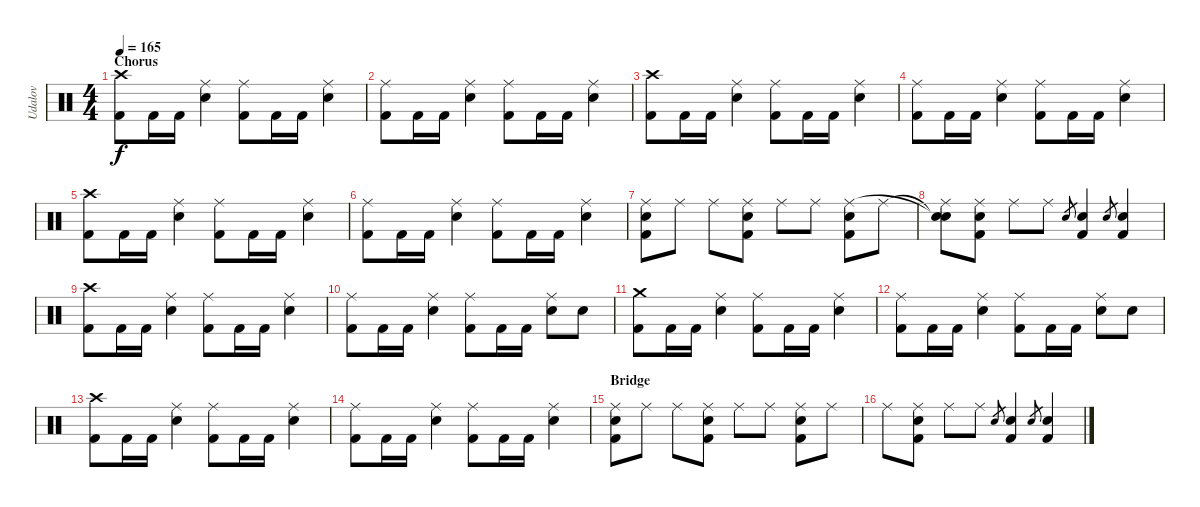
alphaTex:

\track ("Udalov" "Udalov") {instrument percussion}
\staff {score}
\articulation defaults
\ts (4 4)
\section ("" "Chorus")
\tempo 165
\clef neutral
\ks c
("Kick (hit) 2" "Crash high (hit)").8{dy f} "Kick (hit) 2".16 "Kick (hit) 2".16 ("Snare (hit) 2" "Ride (middle)").4 ("Kick (hit) 2" "Ride (middle)").8 "Kick (hit) 2".16 "Kick (hit) 2".16 ("Snare (hit) 2" "Ride (middle)").4 |
("Kick (hit) 2" "Ride (middle)").8 "Kick (hit) 2".16 "Kick (hit) 2".16 ("Snare (hit) 2" "Ride (middle)").4 ("Kick (hit) 2" "Ride (middle)").8 "Kick (hit) 2".16 "Kick (hit) 2".16 ("Snare (hit) 2" "Ride (middle)").4 |
("Kick (hit) 2" "Crash high (hit)").8 "Kick (hit) 2".16 "Kick (hit) 2".16 ("Snare (hit) 2" "Ride (middle)").4 ("Kick (hit) 2" "Ride (middle)").8 "Kick (hit) 2".16 "Kick (hit) 2".16 ("Snare (hit) 2" "Ride (middle)").4 |
("Kick (hit) 2" "Ride (middle)").8 "Kick (hit) 2".16 "Kick (hit) 2".16 ("Snare (hit) 2" "Ride (middle)").4 ("Kick (hit) 2" "Ride (middle)").8 "Kick (hit) 2".16 "Kick (hit) 2".16 ("Snare (hit) 2" "Ride (middle)").4 |
("Kick (hit) 2" "Crash high (hit)").8 "Kick (hit) 2".16 "Kick (hit) 2".16 ("Snare (hit) 2" "Ride (middle)").4 ("Kick (hit) 2" "Ride (middle)").8 "Kick (hit) 2".16 "Kick (hit) 2".16 ("Snare (hit) 2" "Ride (middle)").4 |
("Kick (hit) 2" "Ride (middle)").8 "Kick (hit) 2".16 "Kick (hit) 2".16 ("Snare (hit) 2" "Ride (middle)").4 ("Kick (hit) 2" "Ride (middle)").8 "Kick (hit) 2".16 "Kick (hit) 2".16 ("Snare (hit) 2" "Ride (middle)").4 |
("Snare (hit) 2" "Ride (middle)" "Kick (hit) 2").8 "Ride (middle)".8 "Ride (middle)".8 ("Snare (hit) 2" "Ride (middle)" "Kick (hit) 2").8 "Ride (middle)".8 "Ride (middle)".8 ("Snare (hit) 2" "Ride (middle)" "Kick (hit) 2").8 "Ride (middle)".8 |
("Snare (hit)"{t} "Snare (hit)"{t} "Ride (middle)").8 ("Snare (hit) 2" "Ride (middle)" "Kick (hit) 2").8 "Ride (middle)".8 "Ride (middle)".8 "Snare (hit) 2".8{gr} ("Snare (hit) 2" "Kick (hit) 2").4 "Snare (hit) 2".8{gr} ("Snare (hit) 2" "Kick (hit) 2").4 |
("Kick (hit) 2" "Crash high (hit)").8 "Kick (hit) 2".16 "Kick (hit) 2".16 ("Snare (hit) 2" "Ride (middle)").4 ("Kick (hit) 2" "Ride (middle)").8 "Kick (hit) 2".16 "Kick (hit) 2".16 ("Snare (hit) 2" "Ride (middle)").4 |
("Kick (hit) 2" "Ride (middle)").8 "Kick (hit) 2".16 "Kick (hit) 2".16 ("Snare (hit) 2" "Ride (middle)").4 ("Kick (hit) 2" "Ride (middle)").8 "Kick (hit) 2".16 "Kick (hit) 2".16 ("Snare (hit) 2" "Ride (middle)").8 "Snare (hit) 2".8 |
("Kick (hit) 2" "Crash medium (hit)").8 "Kick (hit) 2".16 "Kick (hit) 2".16 ("Snare (hit) 2" "Ride (middle)").4 ("Kick (hit) 2" "Ride (middle)").8 "Kick (hit) 2".16 "Kick (hit) 2".16 ("Snare (hit) 2" "Ride (middle)").4 |
("Kick (hit) 2" "Ride (middle)").8 "Kick (hit) 2".16 "Kick (hit) 2".16 ("Snare (hit) 2" "Ride (middle)").4 ("Kick (hit) 2" "Ride (middle)").8 "Kick (hit) 2".16 "Kick (hit) 2".16 ("Snare (hit) 2" "Ride (middle)").8 "Snare (hit) 2".8 |
("Kick (hit) 2" "Crash high (hit)").8 "Kick (hit) 2".16 "Kick (hit) 2".16 ("Snare (hit) 2" "Ride (middle)").4 ("Kick (hit) 2" "Ride (middle)").8 "Kick (hit) 2".16 "Kick (hit) 2".16 ("Snare (hit) 2" "Ride (middle)").4 |
("Kick (hit) 2" "Ride (middle)").8 "Kick (hit) 2".16 "Kick (hit) 2".16 ("Snare (hit) 2" "Ride (middle)").4 ("Kick (hit) 2" "Ride (middle)").8 "Kick (hit) 2".16 "Kick (hit) 2".16 ("Snare (hit) 2" "Ride (middle)").4 |
\section ("" "Bridge")
("Snare (hit) 2" "Ride (middle)" "Kick (hit) 2").8 "Ride (middle)".8 "Ride (middle)".8 ("Snare (hit) 2" "Ride (middle)" "Kick (hit) 2").8 "Ride (middle)".8 "Ride (middle)".8 ("Snare (hit) 2" "Ride (middle)" "Kick (hit) 2").8 "Ride (middle)".8 |
"Ride (middle)".8 ("Snare (hit) 2" "Ride (middle)" "Kick (hit) 2").8 "Ride (middle)".8 "Ride (middle)".8 "Snare (hit) 2".8{gr} ("Snare (hit) 2" "Kick (hit) 2").4 "Snare (hit) 2".8{gr} ("Snare (hit) 2" "Kick (hit) 2").4
